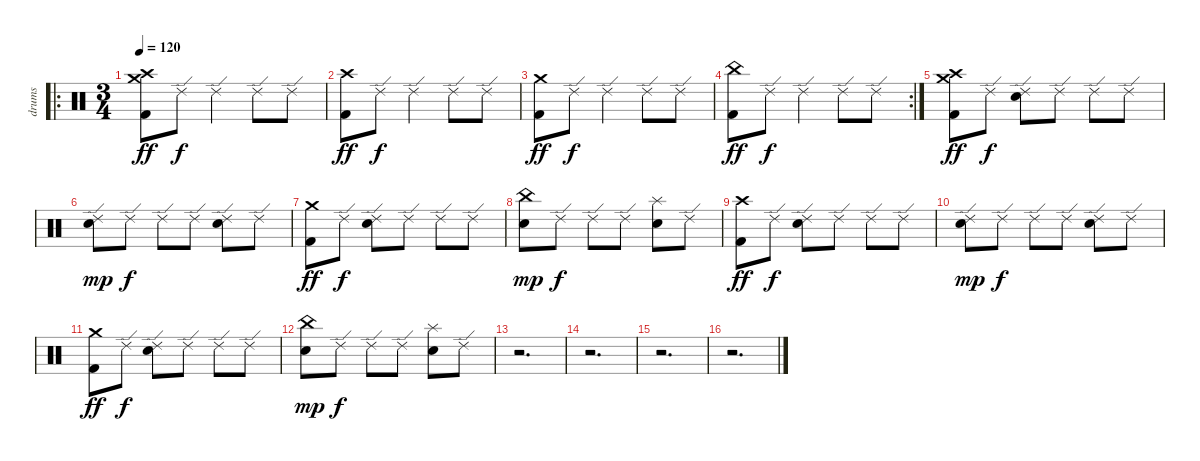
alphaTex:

\track ("drums" "drums") {instrument percussion}
\staff {score}
\articulation defaults
\ro
\ts (3 4)
\section ("" "")
\tempo 120
\clef neutral
\ks c
("Crash medium (hit)" "Crash high (hit)" "Kick (hit) 2").8{dy ff} "Ride (edge) 2".8{dy f} "Ride (edge) 2".4 "Ride (edge) 2".8 "Ride (edge) 2".8 |
("Crash high (hit)" "Kick (hit) 2").8{dy ff} "Ride (edge) 2".8{dy f} "Ride (edge) 2".4 "Ride (edge) 2".8 "Ride (edge) 2".8 |
("Crash medium (hit)" "Kick (hit) 2").8{dy ff} "Ride (edge) 2".8{dy f} "Ride (edge) 2".4 "Ride (edge) 2".8 "Ride (edge) 2".8 |
\rc 2
("China (hit)" "Kick (hit) 2").8{dy ff} "Ride (edge) 2".8{dy f} "Ride (edge) 2".4 "Ride (edge) 2".8 "Ride (edge) 2".8 |
("Crash medium (hit)" "Crash high (hit)" "Kick (hit) 2").8{dy ff} "Ride (edge) 2".8{dy f} ("Ride (edge) 2" "Electric Snare (hit)").8 "Ride (edge) 2".8 "Ride (edge) 2".8 "Ride (edge) 2".8 |
("Ride (edge) 2" "Electric Snare (hit)").8{dy mp} "Ride (edge) 2".8{dy f} "Ride (edge) 2".8 "Ride (edge) 2".8 ("Ride (edge) 2" "Electric Snare (hit)").8 "Ride (edge) 2".8 |
("Crash medium (hit)" "Kick (hit) 2").8{dy ff} "Ride (edge) 2".8{dy f} ("Ride (edge) 2" "Electric Snare (hit)").8 "Ride (edge) 2".8 "Ride (edge) 2".8 "Ride (edge) 2".8 |
("China (hit)" "Electric Snare (hit)").8{dy mp} "Ride (edge) 2".8{dy f} "Ride (edge) 2".8 "Ride (edge) 2".8 ("Splash (hit)" "Electric Snare (hit)").8 "Ride (edge) 2".8 |
("Crash high (hit)" "Kick (hit) 2").8{dy ff} "Ride (edge) 2".8{dy f} ("Ride (edge) 2" "Electric Snare (hit)").8 "Ride (edge) 2".8 "Ride (edge) 2".8 "Ride (edge) 2".8 |
("Ride (edge) 2" "Electric Snare (hit)").8{dy mp} "Ride (edge) 2".8{dy f} "Ride (edge) 2".8 "Ride (edge) 2".8 ("Ride (edge) 2" "Electric Snare (hit)").8 "Ride (edge) 2".8 |
("Crash medium (hit)" "Kick (hit) 2").8{dy ff} "Ride (edge) 2".8{dy f} ("Ride (edge) 2" "Electric Snare (hit)").8 "Ride (edge) 2".8 "Ride (edge) 2".8 "Ride (edge) 2".8 |
("China (hit)" "Electric Snare (hit)").8{dy mp} "Ride (edge) 2".8{dy f} "Ride (edge) 2".8 "Ride (edge) 2".8 ("Splash (hit)" "Electric Snare (hit)").8 "Ride (edge) 2".8 |
r.2{d} |
r.2{d} |
r.2{d} |
r.2{d}
